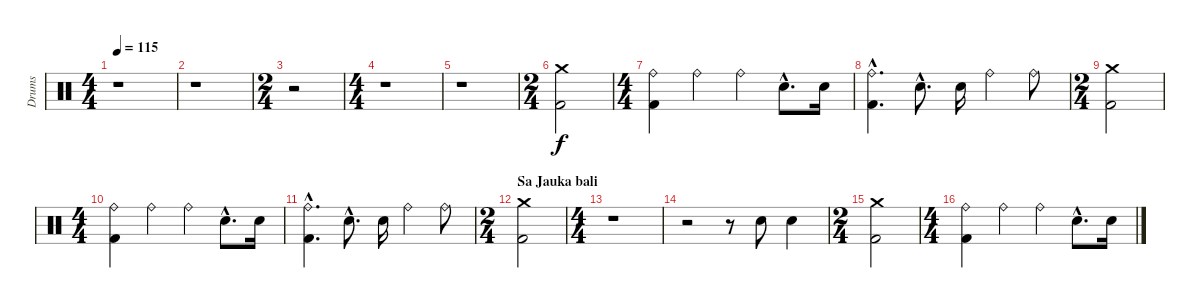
\track ("Drums" "Drums") {instrument percussion}
\staff {score}
\articulation defaults
\ts (4 4)
\tempo 115
\clef neutral
\ks c
r.1{dy f} |
r.1 |
\ts (2 4)
r.2 |
\ts (4 4)
r.1 |
r.1 |
\ts (2 4)
("Kick (hit) 2" "Crash medium (hit)").2 |
\ts (4 4)
("Kick (hit) 2" "Ride (bell)").4 "Ride (bell)".4 "Ride (bell)".4 "Snare (hit) 2"{hac}.8{d} "Snare (hit) 2".16 |
("Kick (hit) 2"{hac} "Ride (bell)"{hac}).4{d} "Snare (hit) 2"{hac}.8{d} "Snare (hit) 2".16 "Ride (bell)".4 "Ride (bell)".8 |
\ts (2 4)
("Kick (hit) 2" "Crash medium (hit)").2 |
\ts (4 4)
("Kick (hit) 2" "Ride (bell)").4 "Ride (bell)".4 "Ride (bell)".4 "Snare (hit) 2"{hac}.8{d} "Snare (hit) 2".16 |
("Kick (hit) 2"{hac} "Ride (bell)"{hac}).4{d} "Snare (hit) 2"{hac}.8{d} "Snare (hit) 2".16 "Ride (bell)".4 "Ride (bell)".8 |
\ts (2 4)
\section ("" "Sa Jauka bali")
("Kick (hit) 2" "Crash medium (hit)").2 |
\ts (4 4)
\section ("" "")
r.1 |
r.2 r.8 "Snare (hit) 2".8 "Snare (hit) 2".4 |
\ts (2 4)
("Kick (hit) 2" "Crash medium (hit)").2 |
\ts (4 4)
("Kick (hit) 2" "Ride (bell)").4 "Ride (bell)".4 "Ride (bell)".4 "Snare (hit) 2"{hac}.8{d} "Snare (hit) 2".16
